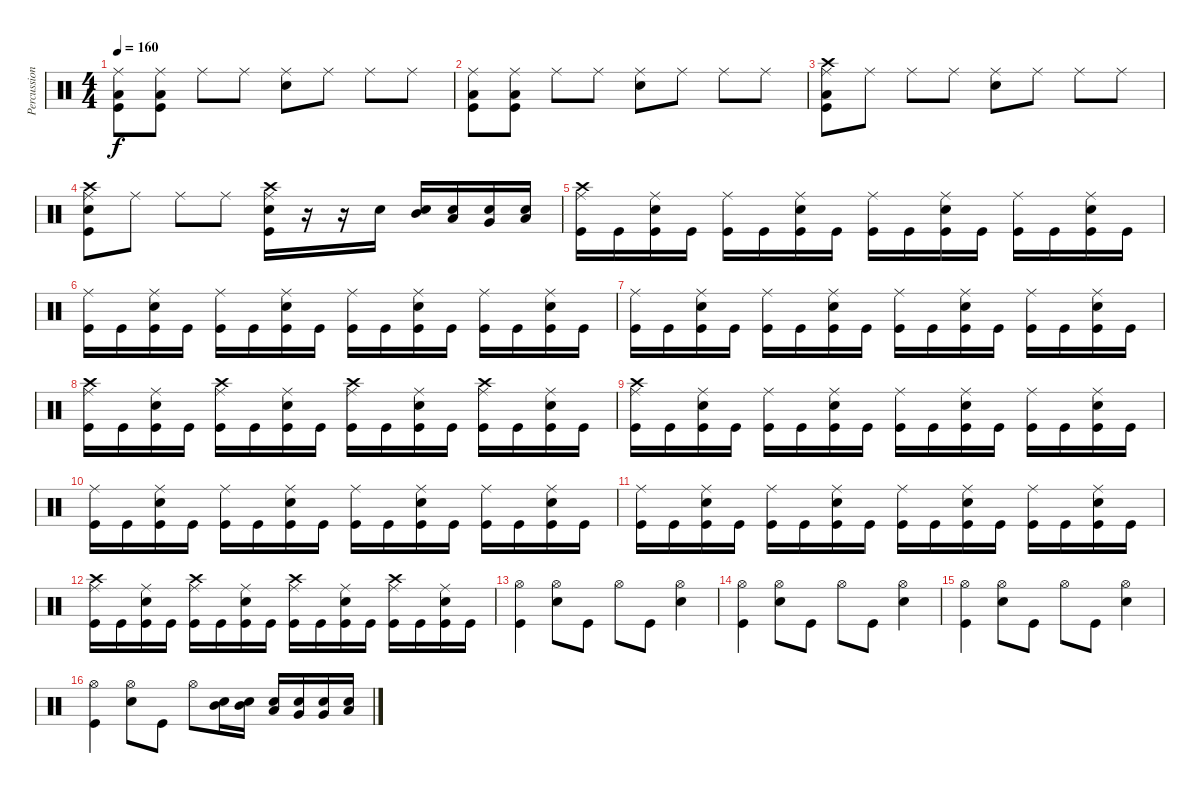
\track ("Percussion" "Percussion") {instrument percussion}
\staff {score}
\articulation defaults
\ts (4 4)
\tempo 160
\clef neutral
\ks c
("Ride (middle)" "Low Floor Tom (hit)" "Kick (hit)").8{dy f} ("Ride (middle)" "Low Floor Tom (hit)" "Kick (hit)").8 "Ride (middle)".8 "Ride (middle)".8 ("Ride (middle)" "Electric Snare (hit)").8 "Ride (middle)".8 "Ride (middle)".8 "Ride (middle)".8 |
("Ride (middle)" "Low Floor Tom (hit)" "Kick (hit)").8 ("Ride (middle)" "Low Floor Tom (hit)" "Kick (hit)").8 "Ride (middle)".8 "Ride (middle)".8 ("Ride (middle)" "Electric Snare (hit)").8 "Ride (middle)".8 "Ride (middle)".8 "Ride (middle)".8 |
("Ride (middle)" "Crash high (hit)" "Low Floor Tom (hit)" "Kick (hit)").8 "Ride (middle)".8 "Ride (middle)".8 "Ride (middle)".8 ("Ride (middle)" "Electric Snare (hit)").8 "Ride (middle)".8 "Ride (middle)".8 "Ride (middle)".8 |
("Ride (middle)" "Crash high (hit)" "Electric Snare (hit)" "Kick (hit)").8 "Ride (middle)".8 "Ride (middle)".8 "Ride (middle)".8 ("Ride (middle)" "Crash high (hit)" "Electric Snare (hit)" "Kick (hit)").16 r.16 r.16 "Electric Snare (hit)".16 ("Electric Snare (hit)" "Mid Tom (hit)").16 ("Electric Snare (hit)" "Low Tom (hit)").16 ("Electric Snare (hit)" "Very Low Tom (hit)").16 ("Electric Snare (hit)" "Low Floor Tom (hit)").16 |
("Crash high (hit)" "Ride (middle)" "Kick (hit)").16 "Kick (hit)".16 ("Ride (middle)" "Electric Snare (hit)" "Kick (hit)").16 "Kick (hit)".16 ("Ride (middle)" "Kick (hit)").16 "Kick (hit)".16 ("Ride (middle)" "Electric Snare (hit)" "Kick (hit)").16 "Kick (hit)".16 ("Ride (middle)" "Kick (hit)").16 "Kick (hit)".16 ("Ride (middle)" "Electric Snare (hit)" "Kick (hit)").16 "Kick (hit)".16 ("Ride (middle)" "Kick (hit)").16 "Kick (hit)".16 ("Ride (middle)" "Electric Snare (hit)" "Kick (hit)").16 "Kick (hit)".16 |
("Ride (middle)" "Kick (hit)").16 "Kick (hit)".16 ("Ride (middle)" "Electric Snare (hit)" "Kick (hit)").16 "Kick (hit)".16 ("Ride (middle)" "Kick (hit)").16 "Kick (hit)".16 ("Ride (middle)" "Electric Snare (hit)" "Kick (hit)").16 "Kick (hit)".16 ("Ride (middle)" "Kick (hit)").16 "Kick (hit)".16 ("Ride (middle)" "Electric Snare (hit)" "Kick (hit)").16 "Kick (hit)".16 ("Ride (middle)" "Kick (hit)").16 "Kick (hit)".16 ("Ride (middle)" "Electric Snare (hit)" "Kick (hit)").16 "Kick (hit)".16 |
("Ride (middle)" "Kick (hit)").16 "Kick (hit)".16 ("Ride (middle)" "Electric Snare (hit)" "Kick (hit)").16 "Kick (hit)".16 ("Ride (middle)" "Kick (hit)").16 "Kick (hit)".16 ("Ride (middle)" "Electric Snare (hit)" "Kick (hit)").16 "Kick (hit)".16 ("Ride (middle)" "Kick (hit)").16 "Kick (hit)".16 ("Ride (middle)" "Electric Snare (hit)" "Kick (hit)").16 "Kick (hit)".16 ("Ride (middle)" "Kick (hit)").16 "Kick (hit)".16 ("Ride (middle)" "Electric Snare (hit)" "Kick (hit)").16 "Kick (hit)".16 |
("Crash high (hit)" "Ride (middle)" "Kick (hit)").16 "Kick (hit)".16 ("Ride (middle)" "Electric Snare (hit)" "Kick (hit)").16 "Kick (hit)".16 ("Crash high (hit)" "Ride (middle)" "Kick (hit)").16 "Kick (hit)".16 ("Ride (middle)" "Electric Snare (hit)" "Kick (hit)").16 "Kick (hit)".16 ("Crash high (hit)" "Ride (middle)" "Kick (hit)").16 "Kick (hit)".16 ("Ride (middle)" "Electric Snare (hit)" "Kick (hit)").16 "Kick (hit)".16 ("Crash high (hit)" "Ride (middle)" "Kick (hit)").16 "Kick (hit)".16 ("Ride (middle)" "Electric Snare (hit)" "Kick (hit)").16 "Kick (hit)".16 |
("Crash high (hit)" "Ride (middle)" "Kick (hit)").16 "Kick (hit)".16 ("Ride (middle)" "Electric Snare (hit)" "Kick (hit)").16 "Kick (hit)".16 ("Ride (middle)" "Kick (hit)").16 "Kick (hit)".16 ("Ride (middle)" "Electric Snare (hit)" "Kick (hit)").16 "Kick (hit)".16 ("Ride (middle)" "Kick (hit)").16 "Kick (hit)".16 ("Ride (middle)" "Electric Snare (hit)" "Kick (hit)").16 "Kick (hit)".16 ("Ride (middle)" "Kick (hit)").16 "Kick (hit)".16 ("Ride (middle)" "Electric Snare (hit)" "Kick (hit)").16 "Kick (hit)".16 |
("Ride (middle)" "Kick (hit)").16 "Kick (hit)".16 ("Ride (middle)" "Electric Snare (hit)" "Kick (hit)").16 "Kick (hit)".16 ("Ride (middle)" "Kick (hit)").16 "Kick (hit)".16 ("Ride (middle)" "Electric Snare (hit)" "Kick (hit)").16 "Kick (hit)".16 ("Ride (middle)" "Kick (hit)").16 "Kick (hit)".16 ("Ride (middle)" "Electric Snare (hit)" "Kick (hit)").16 "Kick (hit)".16 ("Ride (middle)" "Kick (hit)").16 "Kick (hit)".16 ("Ride (middle)" "Electric Snare (hit)" "Kick (hit)").16 "Kick (hit)".16 |
("Ride (middle)" "Kick (hit)").16 "Kick (hit)".16 ("Ride (middle)" "Electric Snare (hit)" "Kick (hit)").16 "Kick (hit)".16 ("Ride (middle)" "Kick (hit)").16 "Kick (hit)".16 ("Ride (middle)" "Electric Snare (hit)" "Kick (hit)").16 "Kick (hit)".16 ("Ride (middle)" "Kick (hit)").16 "Kick (hit)".16 ("Ride (middle)" "Electric Snare (hit)" "Kick (hit)").16 "Kick (hit)".16 ("Ride (middle)" "Kick (hit)").16 "Kick (hit)".16 ("Ride (middle)" "Electric Snare (hit)" "Kick (hit)").16 "Kick (hit)".16 |
("Crash high (hit)" "Ride (middle)" "Kick (hit)").16 "Kick (hit)".16 ("Ride (middle)" "Electric Snare (hit)" "Kick (hit)").16 "Kick (hit)".16 ("Crash high (hit)" "Ride (middle)" "Kick (hit)").16 "Kick (hit)".16 ("Ride (middle)" "Electric Snare (hit)" "Kick (hit)").16 "Kick (hit)".16 ("Crash high (hit)" "Ride (middle)" "Kick (hit)").16 "Kick (hit)".16 ("Ride (middle)" "Electric Snare (hit)" "Kick (hit)").16 "Kick (hit)".16 ("Crash high (hit)" "Ride (middle)" "Kick (hit)").16 "Kick (hit)".16 ("Ride (middle)" "Electric Snare (hit)" "Kick (hit)").16 "Kick (hit)".16 |
("Hi-Hat (open)" "Kick (hit)").4 ("Hi-Hat (open)" "Electric Snare (hit)").8 "Kick (hit)".8 "Hi-Hat (open)".8 "Kick (hit)".8 ("Hi-Hat (open)" "Electric Snare (hit)").4 |
("Hi-Hat (open)" "Kick (hit)").4 ("Hi-Hat (open)" "Electric Snare (hit)").8 "Kick (hit)".8 "Hi-Hat (open)".8 "Kick (hit)".8 ("Hi-Hat (open)" "Electric Snare (hit)").4 |
("Hi-Hat (open)" "Kick (hit)").4 ("Hi-Hat (open)" "Electric Snare (hit)").8 "Kick (hit)".8 "Hi-Hat (open)".8 "Kick (hit)".8 ("Hi-Hat (open)" "Electric Snare (hit)").4 |
("Hi-Hat (open)" "Kick (hit)").4 ("Hi-Hat (open)" "Electric Snare (hit)").8 "Kick (hit)".8 "Hi-Hat (open)".8 ("Mid Tom (hit)" "Electric Snare (hit)").16 ("Mid Tom (hit)" "Electric Snare (hit)").16 ("Low Tom (hit)" "Electric Snare (hit)").16 ("Very Low Tom (hit)" "Electric Snare (hit)").16 ("Very Low Tom (hit)" "Electric Snare (hit)").16 ("Low Floor Tom (hit)" "Electric Snare (hit)").16
